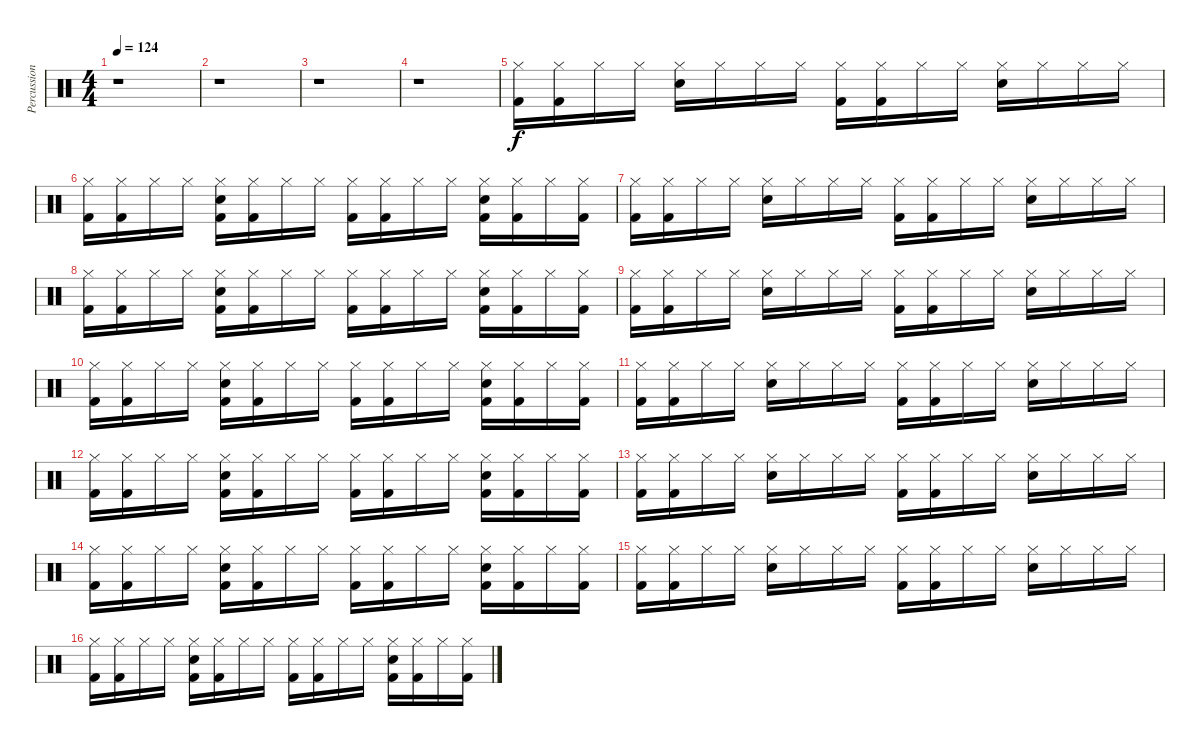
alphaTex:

\track ("Percussion" "Percussion") {instrument percussion}
\staff {score}
\articulation defaults
\ts (4 4)
\tempo 124
\clef neutral
\ks c
r.1{dy f} |
r.1 |
r.1 |
r.1 |
("Kick (hit) 2" "Hi-Hat (closed)").16 ("Kick (hit) 2" "Hi-Hat (closed)").16 "Hi-Hat (closed)".16 "Hi-Hat (closed)".16 ("Electric Snare (hit)" "Hi-Hat (closed)").16 "Hi-Hat (closed)".16 "Hi-Hat (closed)".16 "Hi-Hat (closed)".16 ("Kick (hit) 2" "Hi-Hat (closed)").16 ("Kick (hit) 2" "Hi-Hat (closed)").16 "Hi-Hat (closed)".16 "Hi-Hat (closed)".16 ("Electric Snare (hit)" "Hi-Hat (closed)").16 "Hi-Hat (closed)".16 "Hi-Hat (closed)".16 "Hi-Hat (closed)".16 |
("Kick (hit) 2" "Hi-Hat (closed)").16 ("Kick (hit) 2" "Hi-Hat (closed)").16 "Hi-Hat (closed)".16 "Hi-Hat (closed)".16 ("Kick (hit) 2" "Hi-Hat (closed)" "Electric Snare (hit)").16 ("Kick (hit) 2" "Hi-Hat (closed)").16 "Hi-Hat (closed)".16 "Hi-Hat (closed)".16 ("Kick (hit) 2" "Hi-Hat (closed)").16 ("Kick (hit) 2" "Hi-Hat (closed)").16 "Hi-Hat (closed)".16 "Hi-Hat (closed)".16 ("Kick (hit) 2" "Hi-Hat (closed)" "Electric Snare (hit)").16 ("Kick (hit) 2" "Hi-Hat (closed)").16 "Hi-Hat (closed)".16 ("Kick (hit) 2" "Hi-Hat (closed)").16 |
("Kick (hit) 2" "Hi-Hat (closed)").16 ("Kick (hit) 2" "Hi-Hat (closed)").16 "Hi-Hat (closed)".16 "Hi-Hat (closed)".16 ("Electric Snare (hit)" "Hi-Hat (closed)").16 "Hi-Hat (closed)".16 "Hi-Hat (closed)".16 "Hi-Hat (closed)".16 ("Kick (hit) 2" "Hi-Hat (closed)").16 ("Kick (hit) 2" "Hi-Hat (closed)").16 "Hi-Hat (closed)".16 "Hi-Hat (closed)".16 ("Electric Snare (hit)" "Hi-Hat (closed)").16 "Hi-Hat (closed)".16 "Hi-Hat (closed)".16 "Hi-Hat (closed)".16 |
("Kick (hit) 2" "Hi-Hat (closed)").16 ("Kick (hit) 2" "Hi-Hat (closed)").16 "Hi-Hat (closed)".16 "Hi-Hat (closed)".16 ("Kick (hit) 2" "Hi-Hat (closed)" "Electric Snare (hit)").16 ("Kick (hit) 2" "Hi-Hat (closed)").16 "Hi-Hat (closed)".16 "Hi-Hat (closed)".16 ("Kick (hit) 2" "Hi-Hat (closed)").16 ("Kick (hit) 2" "Hi-Hat (closed)").16 "Hi-Hat (closed)".16 "Hi-Hat (closed)".16 ("Kick (hit) 2" "Hi-Hat (closed)" "Electric Snare (hit)").16 ("Kick (hit) 2" "Hi-Hat (closed)").16 "Hi-Hat (closed)".16 ("Kick (hit) 2" "Hi-Hat (closed)").16 |
("Kick (hit) 2" "Hi-Hat (closed)").16 ("Kick (hit) 2" "Hi-Hat (closed)").16 "Hi-Hat (closed)".16 "Hi-Hat (closed)".16 ("Electric Snare (hit)" "Hi-Hat (closed)").16 "Hi-Hat (closed)".16 "Hi-Hat (closed)".16 "Hi-Hat (closed)".16 ("Kick (hit) 2" "Hi-Hat (closed)").16 ("Kick (hit) 2" "Hi-Hat (closed)").16 "Hi-Hat (closed)".16 "Hi-Hat (closed)".16 ("Electric Snare (hit)" "Hi-Hat (closed)").16 "Hi-Hat (closed)".16 "Hi-Hat (closed)".16 "Hi-Hat (closed)".16 |
("Kick (hit) 2" "Hi-Hat (closed)").16 ("Kick (hit) 2" "Hi-Hat (closed)").16 "Hi-Hat (closed)".16 "Hi-Hat (closed)".16 ("Kick (hit) 2" "Hi-Hat (closed)" "Electric Snare (hit)").16 ("Kick (hit) 2" "Hi-Hat (closed)").16 "Hi-Hat (closed)".16 "Hi-Hat (closed)".16 ("Kick (hit) 2" "Hi-Hat (closed)").16 ("Kick (hit) 2" "Hi-Hat (closed)").16 "Hi-Hat (closed)".16 "Hi-Hat (closed)".16 ("Kick (hit) 2" "Hi-Hat (closed)" "Electric Snare (hit)").16 ("Kick (hit) 2" "Hi-Hat (closed)").16 "Hi-Hat (closed)".16 ("Kick (hit) 2" "Hi-Hat (closed)").16 |
("Kick (hit) 2" "Hi-Hat (closed)").16 ("Kick (hit) 2" "Hi-Hat (closed)").16 "Hi-Hat (closed)".16 "Hi-Hat (closed)".16 ("Electric Snare (hit)" "Hi-Hat (closed)").16 "Hi-Hat (closed)".16 "Hi-Hat (closed)".16 "Hi-Hat (closed)".16 ("Kick (hit) 2" "Hi-Hat (closed)").16 ("Kick (hit) 2" "Hi-Hat (closed)").16 "Hi-Hat (closed)".16 "Hi-Hat (closed)".16 ("Electric Snare (hit)" "Hi-Hat (closed)").16 "Hi-Hat (closed)".16 "Hi-Hat (closed)".16 "Hi-Hat (closed)".16 |
("Kick (hit) 2" "Hi-Hat (closed)").16 ("Kick (hit) 2" "Hi-Hat (closed)").16 "Hi-Hat (closed)".16 "Hi-Hat (closed)".16 ("Kick (hit) 2" "Hi-Hat (closed)" "Electric Snare (hit)").16 ("Kick (hit) 2" "Hi-Hat (closed)").16 "Hi-Hat (closed)".16 "Hi-Hat (closed)".16 ("Kick (hit) 2" "Hi-Hat (closed)").16 ("Kick (hit) 2" "Hi-Hat (closed)").16 "Hi-Hat (closed)".16 "Hi-Hat (closed)".16 ("Kick (hit) 2" "Hi-Hat (closed)" "Electric Snare (hit)").16 ("Kick (hit) 2" "Hi-Hat (closed)").16 "Hi-Hat (closed)".16 ("Kick (hit) 2" "Hi-Hat (closed)").16 |
("Kick (hit) 2" "Hi-Hat (closed)").16 ("Kick (hit) 2" "Hi-Hat (closed)").16 "Hi-Hat (closed)".16 "Hi-Hat (closed)".16 ("Electric Snare (hit)" "Hi-Hat (closed)").16 "Hi-Hat (closed)".16 "Hi-Hat (closed)".16 "Hi-Hat (closed)".16 ("Kick (hit) 2" "Hi-Hat (closed)").16 ("Kick (hit) 2" "Hi-Hat (closed)").16 "Hi-Hat (closed)".16 "Hi-Hat (closed)".16 ("Electric Snare (hit)" "Hi-Hat (closed)").16 "Hi-Hat (closed)".16 "Hi-Hat (closed)".16 "Hi-Hat (closed)".16 |
("Kick (hit) 2" "Hi-Hat (closed)").16 ("Kick (hit) 2" "Hi-Hat (closed)").16 "Hi-Hat (closed)".16 "Hi-Hat (closed)".16 ("Kick (hit) 2" "Hi-Hat (closed)" "Electric Snare (hit)").16 ("Kick (hit) 2" "Hi-Hat (closed)").16 "Hi-Hat (closed)".16 "Hi-Hat (closed)".16 ("Kick (hit) 2" "Hi-Hat (closed)").16 ("Kick (hit) 2" "Hi-Hat (closed)").16 "Hi-Hat (closed)".16 "Hi-Hat (closed)".16 ("Kick (hit) 2" "Hi-Hat (closed)" "Electric Snare (hit)").16 ("Kick (hit) 2" "Hi-Hat (closed)").16 "Hi-Hat (closed)".16 ("Kick (hit) 2" "Hi-Hat (closed)").16 |
("Kick (hit) 2" "Hi-Hat (closed)").16 ("Kick (hit) 2" "Hi-Hat (closed)").16 "Hi-Hat (closed)".16 "Hi-Hat (closed)".16 ("Electric Snare (hit)" "Hi-Hat (closed)").16 "Hi-Hat (closed)".16 "Hi-Hat (closed)".16 "Hi-Hat (closed)".16 ("Kick (hit) 2" "Hi-Hat (closed)").16 ("Kick (hit) 2" "Hi-Hat (closed)").16 "Hi-Hat (closed)".16 "Hi-Hat (closed)".16 ("Electric Snare (hit)" "Hi-Hat (closed)").16 "Hi-Hat (closed)".16 "Hi-Hat (closed)".16 "Hi-Hat (closed)".16 |
("Kick (hit) 2" "Hi-Hat (closed)").16 ("Kick (hit) 2" "Hi-Hat (closed)").16 "Hi-Hat (closed)".16 "Hi-Hat (closed)".16 ("Kick (hit) 2" "Hi-Hat (closed)" "Electric Snare (hit)").16 ("Kick (hit) 2" "Hi-Hat (closed)").16 "Hi-Hat (closed)".16 "Hi-Hat (closed)".16 ("Kick (hit) 2" "Hi-Hat (closed)").16 ("Kick (hit) 2" "Hi-Hat (closed)").16 "Hi-Hat (closed)".16 "Hi-Hat (closed)".16 ("Kick (hit) 2" "Hi-Hat (closed)" "Electric Snare (hit)").16 ("Kick (hit) 2" "Hi-Hat (closed)").16 "Hi-Hat (closed)".16 ("Kick (hit) 2" "Hi-Hat (closed)").16
